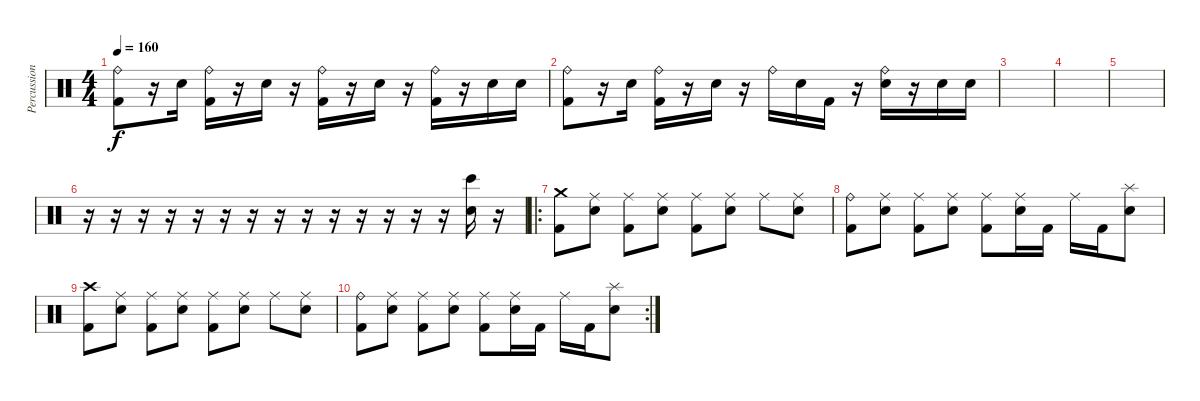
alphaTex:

\track ("Percussion" "Percussion") {instrument percussion}
\staff {score}
\articulation defaults
\ts (4 4)
\tempo 160
\clef neutral
\ks c
("Kick (hit) 2" "Ride (bell)").8{dy f} r.16 "Electric Snare (hit)".16 ("Kick (hit) 2" "Ride (bell)").16 r.16 "Electric Snare (hit)".16 r.16 ("Kick (hit) 2" "Ride (bell)").16 r.16 "Electric Snare (hit)".16 r.16 ("Kick (hit) 2" "Ride (bell)").16 r.16 "Electric Snare (hit)".16 "Electric Snare (hit)".16 |
("Kick (hit) 2" "Ride (bell)").8 r.16 "Electric Snare (hit)".16 ("Kick (hit) 2" "Ride (bell)").16 r.16 "Electric Snare (hit)".16 r.16 "Ride (bell)".16 "Electric Snare (hit)".16 "Kick (hit) 2".16 r.16 ("Electric Snare (hit)" "Ride (bell)").16 r.16 "Electric Snare (hit)".16 "Electric Snare (hit)".16 |
|
|
|
r.16 r.16 r.16 r.16 r.16 r.16 r.16 r.16 r.16 r.16 r.16 r.16 r.16 r.16 ("Electric Snare (hit)" "Bongo High (hit)").16 r.16 |
\ro
("Crash medium (hit)" "Kick (hit) 2").8 ("Ride (middle)" "Electric Snare (hit)").8 ("Ride (middle)" "Kick (hit) 2").8 ("Ride (middle)" "Electric Snare (hit)").8 ("Ride (middle)" "Kick (hit) 2").8 ("Ride (middle)" "Electric Snare (hit)").8 "Ride (middle)".8 ("Ride (middle)" "Electric Snare (hit)").8 |
("Ride (bell)" "Kick (hit) 2").8 ("Ride (middle)" "Electric Snare (hit)").8 ("Ride (middle)" "Kick (hit) 2").8 ("Ride (middle)" "Electric Snare (hit)").8 ("Ride (middle)" "Kick (hit) 2").8 ("Ride (middle)" "Electric Snare (hit)").16 "Kick (hit) 2".16 "Ride (middle)".16 "Kick (hit) 2".16 ("Splash (hit)" "Electric Snare (hit)").8 |
("Crash high (hit)" "Kick (hit) 2").8 ("Ride (middle)" "Electric Snare (hit)").8 ("Ride (middle)" "Kick (hit) 2").8 ("Ride (middle)" "Electric Snare (hit)").8 ("Ride (middle)" "Kick (hit) 2").8 ("Ride (middle)" "Electric Snare (hit)").8 "Ride (middle)".8 ("Ride (middle)" "Electric Snare (hit)").8 |
\rc 2
("Ride (bell)" "Kick (hit) 2").8 ("Ride (middle)" "Electric Snare (hit)").8 ("Ride (middle)" "Kick (hit) 2").8 ("Ride (middle)" "Electric Snare (hit)").8 ("Ride (middle)" "Kick (hit) 2").8 ("Ride (middle)" "Electric Snare (hit)").16 "Kick (hit) 2".16 "Ride (middle)".16 "Kick (hit) 2".16 ("Splash (hit)" "Electric Snare (hit)").8
